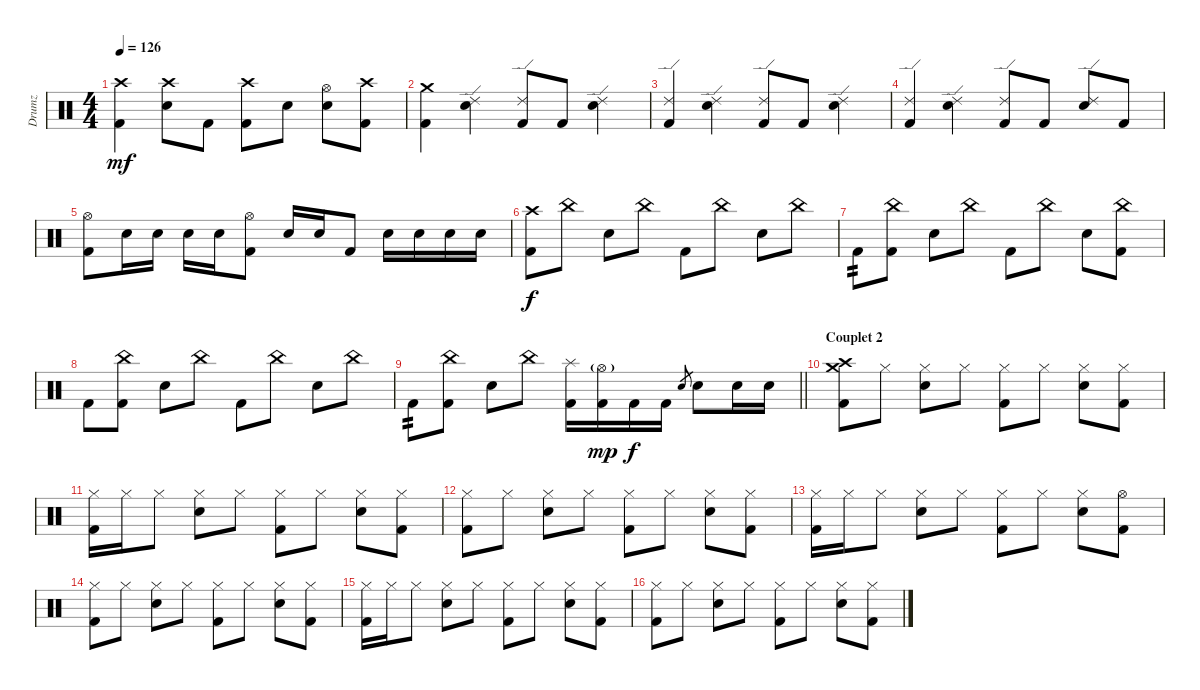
\track ("Drumz" "Drumz") {instrument percussion}
\staff {score}
\articulation defaults
\ts (4 4)
\tempo 126
\clef neutral
\ks c
("Crash high (hit)" "Kick (hit) 2").4{dy mf} ("Crash high (hit)" "Snare (hit) 2").8 "Kick (hit) 2".8 ("Crash high (hit)" "Kick (hit) 2").8 "Snare (hit) 2".8 ("Hi-Hat (open)" "Snare (hit) 2").8 ("Crash high (hit)" "Kick (hit) 2").8 |
("Crash medium (hit)" "Kick (hit) 2").4 ("Ride (edge) 2" "Snare (hit) 2").4 ("Ride (edge) 2" "Kick (hit) 2").8 "Kick (hit) 2".8 ("Ride (edge) 2" "Snare (hit) 2").4 |
("Ride (edge) 2" "Kick (hit) 2").4 ("Ride (edge) 2" "Snare (hit) 2").4 ("Ride (edge) 2" "Kick (hit) 2").8 "Kick (hit) 2".8 ("Ride (edge) 2" "Snare (hit) 2").4 |
("Ride (edge) 2" "Kick (hit) 2").4 ("Ride (edge) 2" "Snare (hit) 2").4 ("Ride (edge) 2" "Kick (hit) 2").8 "Kick (hit) 2".8 ("Ride (edge) 2" "Snare (hit) 2").8 "Kick (hit) 2".8 |
("Hi-Hat (open)" "Kick (hit) 2").8 "Snare (hit) 2".16 "Snare (hit) 2".16 "Snare (hit) 2".16 "Snare (hit) 2".16 ("Hi-Hat (open)" "Kick (hit) 2").8 "Snare (hit) 2".16 "Snare (hit) 2".16 "Kick (hit) 2".8 "Snare (hit) 2".16 "Snare (hit) 2".16 "Snare (hit) 2".16 "Snare (hit) 2".16 |
("Crash high (hit)" "Kick (hit) 2").8{dy f} "China (hit)".8 "Snare (hit) 2".8 "China (hit)".8 "Kick (hit) 2".8 "China (hit)".8 "Snare (hit) 2".8 "China (hit)".8 |
"Kick (hit) 2".8{tp 2} ("China (hit)" "Kick (hit) 2").8 "Snare (hit) 2".8 "China (hit)".8 "Kick (hit) 2".8 "China (hit)".8 "Snare (hit) 2".8 ("China (hit)" "Kick (hit) 2").8 |
"Kick (hit) 2".8 ("China (hit)" "Kick (hit) 2").8 "Snare (hit) 2".8 "China (hit)".8 "Kick (hit) 2".8 "China (hit)".8 "Snare (hit) 2".8 "China (hit)".8 |
\barLineRight lightlight "Kick (hit) 2".8{tp 2}
("China (hit)" "Kick (hit) 2").8 "Snare (hit) 2".8 "China (hit)".8 ("Splash (hit)" "Kick (hit) 2").16 ("Hi-Hat (open)"{g} "Kick (hit) 2").16{dy mp} "Kick (hit) 2".16{dy f} "Kick (hit) 2".16 "Snare (hit) 2".8{gr} "Snare (hit) 2".8 "Snare (hit) 2".16 "Snare (hit) 2".16 |
\section ("" "Couplet 2")
("Crash medium (hit)" "Crash high (hit)" "Kick (hit) 2").8 "Hi-Hat (closed)".8 ("Hi-Hat (closed)" "Snare (hit) 2").8 "Hi-Hat (closed)".8 ("Hi-Hat (closed)" "Kick (hit) 2").8 "Hi-Hat (closed)".8 ("Hi-Hat (closed)" "Snare (hit) 2").8 ("Hi-Hat (closed)" "Kick (hit) 2").8 |
("Hi-Hat (closed)" "Kick (hit) 2").16 "Hi-Hat (closed)".16 "Hi-Hat (closed)".8 ("Hi-Hat (closed)" "Snare (hit) 2").8 "Hi-Hat (closed)".8 ("Hi-Hat (closed)" "Kick (hit) 2").8 "Hi-Hat (closed)".8 ("Hi-Hat (closed)" "Snare (hit) 2").8 ("Hi-Hat (closed)" "Kick (hit) 2").8 |
("Hi-Hat (closed)" "Kick (hit) 2").8 "Hi-Hat (closed)".8 ("Hi-Hat (closed)" "Snare (hit) 2").8 "Hi-Hat (closed)".8 ("Hi-Hat (closed)" "Kick (hit) 2").8 "Hi-Hat (closed)".8 ("Hi-Hat (closed)" "Snare (hit) 2").8 ("Hi-Hat (closed)" "Kick (hit) 2").8 |
("Hi-Hat (closed)" "Kick (hit) 2").16 "Hi-Hat (closed)".16 "Hi-Hat (closed)".8 ("Hi-Hat (closed)" "Snare (hit) 2").8 "Hi-Hat (closed)".8 ("Hi-Hat (closed)" "Kick (hit) 2").8 "Hi-Hat (closed)".8 ("Hi-Hat (closed)" "Snare (hit) 2").8 ("Hi-Hat (open)" "Kick (hit) 2").8 |
("Hi-Hat (closed)" "Kick (hit) 2").8 "Hi-Hat (closed)".8 ("Hi-Hat (closed)" "Snare (hit) 2").8 "Hi-Hat (closed)".8 ("Hi-Hat (closed)" "Kick (hit) 2").8 "Hi-Hat (closed)".8 ("Hi-Hat (closed)" "Snare (hit) 2").8 ("Hi-Hat (closed)" "Kick (hit) 2").8 |
("Hi-Hat (closed)" "Kick (hit) 2").16 "Hi-Hat (closed)".16 "Hi-Hat (closed)".8 ("Hi-Hat (closed)" "Snare (hit) 2").8 "Hi-Hat (closed)".8 ("Hi-Hat (closed)" "Kick (hit) 2").8 "Hi-Hat (closed)".8 ("Hi-Hat (closed)" "Snare (hit) 2").8 ("Hi-Hat (closed)" "Kick (hit) 2").8 |
("Hi-Hat (closed)" "Kick (hit) 2").8 "Hi-Hat (closed)".8 ("Hi-Hat (closed)" "Snare (hit) 2").8 "Hi-Hat (closed)".8 ("Hi-Hat (closed)" "Kick (hit) 2").8 "Hi-Hat (closed)".8 ("Hi-Hat (closed)" "Snare (hit) 2").8 ("Hi-Hat (closed)" "Kick (hit) 2").8
